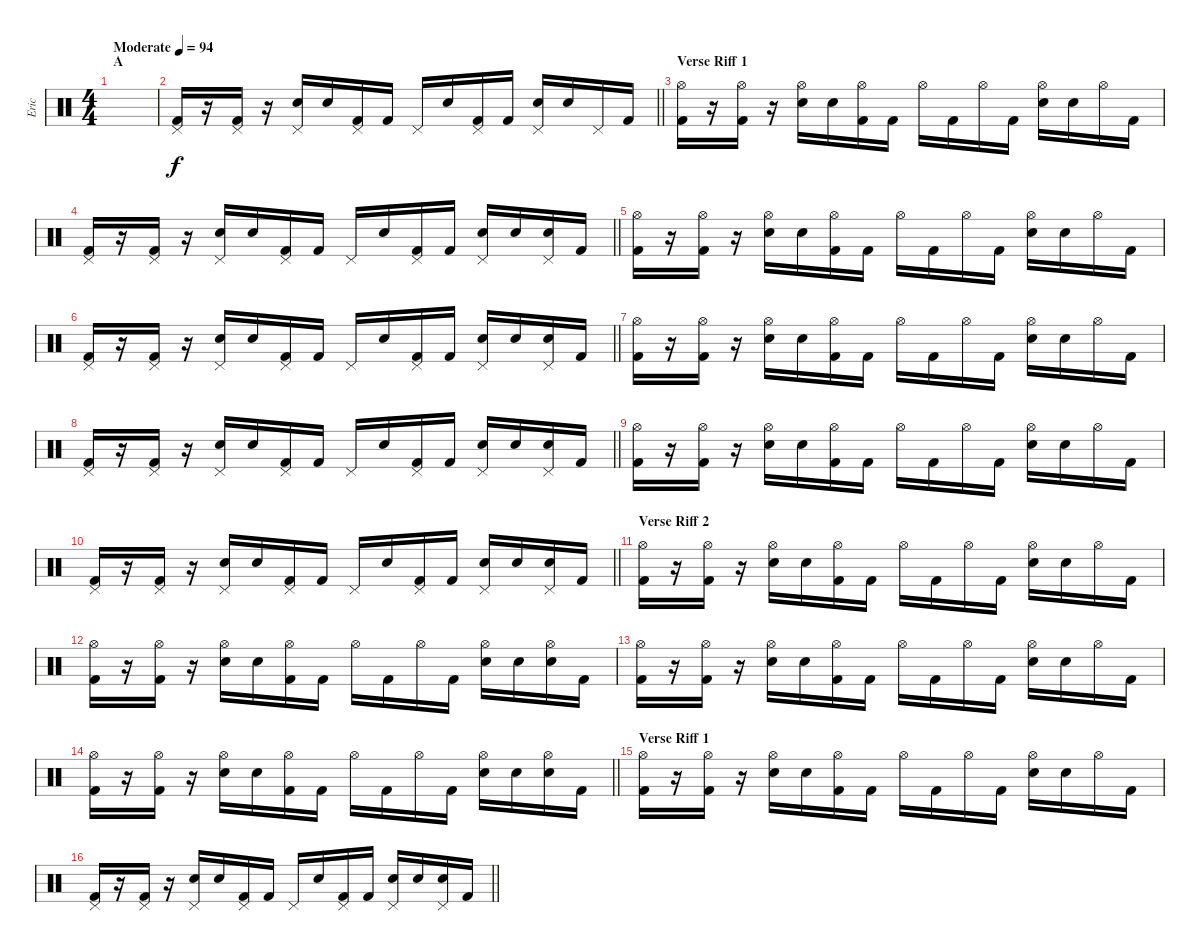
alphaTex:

\track ("Eric" "Eric") {instrument percussion}
\staff {score}
\articulation defaults
\ts (4 4)
\section ("" "A")
\tempo (94 "Moderate")
\clef neutral
\ks c
|
\barLineRight lightlight
("Pedal Hi-Hat (hit)" "Kick (hit) 2").16 r.16 ("Pedal Hi-Hat (hit)" "Kick (hit) 2").16 r.16 ("Pedal Hi-Hat (hit)" "Electric Snare (hit)").16 "Electric Snare (hit)".16 ("Pedal Hi-Hat (hit)" "Kick (hit) 2").16 "Kick (hit) 2".16 "Pedal Hi-Hat (hit)".16 "Electric Snare (hit)".16 ("Pedal Hi-Hat (hit)" "Kick (hit) 2").16 "Kick (hit) 2".16 ("Pedal Hi-Hat (hit)" "Electric Snare (hit)").16 "Electric Snare (hit)".16 "Pedal Hi-Hat (hit)".16 "Kick (hit) 2".16 |
\section ("" "Verse Riff 1")
("Hi-Hat (open)" "Kick (hit) 2").16 r.16 ("Hi-Hat (open)" "Kick (hit) 2").16 r.16 ("Hi-Hat (open)" "Electric Snare (hit)").16 "Electric Snare (hit)".16 ("Hi-Hat (open)" "Kick (hit) 2").16 "Kick (hit) 2".16 "Hi-Hat (open)".16 "Kick (hit) 2".16 "Hi-Hat (open)".16 "Kick (hit) 2".16 ("Hi-Hat (open)" "Electric Snare (hit)").16 "Electric Snare (hit)".16 "Hi-Hat (open)".16 "Kick (hit) 2".16 |
\barLineRight lightlight
("Pedal Hi-Hat (hit)" "Kick (hit) 2").16 r.16 ("Pedal Hi-Hat (hit)" "Kick (hit) 2").16 r.16 ("Pedal Hi-Hat (hit)" "Electric Snare (hit)").16 "Electric Snare (hit)".16 ("Pedal Hi-Hat (hit)" "Kick (hit) 2").16 "Kick (hit) 2".16 "Pedal Hi-Hat (hit)".16 "Electric Snare (hit)".16 ("Pedal Hi-Hat (hit)" "Kick (hit) 2").16 "Kick (hit) 2".16 ("Pedal Hi-Hat (hit)" "Electric Snare (hit)").16 "Electric Snare (hit)".16 ("Pedal Hi-Hat (hit)" "Electric Snare (hit)").16 "Kick (hit) 2".16 |
("Hi-Hat (open)" "Kick (hit) 2").16 r.16 ("Hi-Hat (open)" "Kick (hit) 2").16 r.16 ("Hi-Hat (open)" "Electric Snare (hit)").16 "Electric Snare (hit)".16 ("Hi-Hat (open)" "Kick (hit) 2").16 "Kick (hit) 2".16 "Hi-Hat (open)".16 "Kick (hit) 2".16 "Hi-Hat (open)".16 "Kick (hit) 2".16 ("Hi-Hat (open)" "Electric Snare (hit)").16 "Electric Snare (hit)".16 "Hi-Hat (open)".16 "Kick (hit) 2".16 |
\barLineRight lightlight
("Pedal Hi-Hat (hit)" "Kick (hit) 2").16 r.16 ("Pedal Hi-Hat (hit)" "Kick (hit) 2").16 r.16 ("Pedal Hi-Hat (hit)" "Electric Snare (hit)").16 "Electric Snare (hit)".16 ("Pedal Hi-Hat (hit)" "Kick (hit) 2").16 "Kick (hit) 2".16 "Pedal Hi-Hat (hit)".16 "Electric Snare (hit)".16 ("Pedal Hi-Hat (hit)" "Kick (hit) 2").16 "Kick (hit) 2".16 ("Pedal Hi-Hat (hit)" "Electric Snare (hit)").16 "Electric Snare (hit)".16 ("Pedal Hi-Hat (hit)" "Electric Snare (hit)").16 "Kick (hit) 2".16 |
("Hi-Hat (open)" "Kick (hit) 2").16 r.16 ("Hi-Hat (open)" "Kick (hit) 2").16 r.16 ("Hi-Hat (open)" "Electric Snare (hit)").16 "Electric Snare (hit)".16 ("Hi-Hat (open)" "Kick (hit) 2").16 "Kick (hit) 2".16 "Hi-Hat (open)".16 "Kick (hit) 2".16 "Hi-Hat (open)".16 "Kick (hit) 2".16 ("Hi-Hat (open)" "Electric Snare (hit)").16 "Electric Snare (hit)".16 "Hi-Hat (open)".16 "Kick (hit) 2".16 |
\barLineRight lightlight
("Pedal Hi-Hat (hit)" "Kick (hit) 2").16 r.16 ("Pedal Hi-Hat (hit)" "Kick (hit) 2").16 r.16 ("Pedal Hi-Hat (hit)" "Electric Snare (hit)").16 "Electric Snare (hit)".16 ("Pedal Hi-Hat (hit)" "Kick (hit) 2").16 "Kick (hit) 2".16 "Pedal Hi-Hat (hit)".16 "Electric Snare (hit)".16 ("Pedal Hi-Hat (hit)" "Kick (hit) 2").16 "Kick (hit) 2".16 ("Pedal Hi-Hat (hit)" "Electric Snare (hit)").16 "Electric Snare (hit)".16 ("Pedal Hi-Hat (hit)" "Electric Snare (hit)").16 "Kick (hit) 2".16 |
("Hi-Hat (open)" "Kick (hit) 2").16 r.16 ("Hi-Hat (open)" "Kick (hit) 2").16 r.16 ("Hi-Hat (open)" "Electric Snare (hit)").16 "Electric Snare (hit)".16 ("Hi-Hat (open)" "Kick (hit) 2").16 "Kick (hit) 2".16 "Hi-Hat (open)".16 "Kick (hit) 2".16 "Hi-Hat (open)".16 "Kick (hit) 2".16 ("Hi-Hat (open)" "Electric Snare (hit)").16 "Electric Snare (hit)".16 "Hi-Hat (open)".16 "Kick (hit) 2".16 |
\barLineRight lightlight
("Pedal Hi-Hat (hit)" "Kick (hit) 2").16 r.16 ("Pedal Hi-Hat (hit)" "Kick (hit) 2").16 r.16 ("Pedal Hi-Hat (hit)" "Electric Snare (hit)").16 "Electric Snare (hit)".16 ("Pedal Hi-Hat (hit)" "Kick (hit) 2").16 "Kick (hit) 2".16 "Pedal Hi-Hat (hit)".16 "Electric Snare (hit)".16 ("Pedal Hi-Hat (hit)" "Kick (hit) 2").16 "Kick (hit) 2".16 ("Pedal Hi-Hat (hit)" "Electric Snare (hit)").16 "Electric Snare (hit)".16 ("Pedal Hi-Hat (hit)" "Electric Snare (hit)").16 "Kick (hit) 2".16 |
\section ("" "Verse Riff 2")
("Hi-Hat (open)" "Kick (hit) 2").16 r.16 ("Hi-Hat (open)" "Kick (hit) 2").16 r.16 ("Hi-Hat (open)" "Electric Snare (hit)").16 "Electric Snare (hit)".16 ("Hi-Hat (open)" "Kick (hit) 2").16 "Kick (hit) 2".16 "Hi-Hat (open)".16 "Kick (hit) 2".16 "Hi-Hat (open)".16 "Kick (hit) 2".16 ("Hi-Hat (open)" "Electric Snare (hit)").16 "Electric Snare (hit)".16 "Hi-Hat (open)".16 "Kick (hit) 2".16 |
("Hi-Hat (open)" "Kick (hit) 2").16 r.16 ("Hi-Hat (open)" "Kick (hit) 2").16 r.16 ("Hi-Hat (open)" "Electric Snare (hit)").16 "Electric Snare (hit)".16 ("Hi-Hat (open)" "Kick (hit) 2").16 "Kick (hit) 2".16 "Hi-Hat (open)".16 "Kick (hit) 2".16 "Hi-Hat (open)".16 "Kick (hit) 2".16 ("Hi-Hat (open)" "Electric Snare (hit)").16 "Electric Snare (hit)".16 ("Hi-Hat (open)" "Electric Snare (hit)").16 "Kick (hit) 2".16 |
("Hi-Hat (open)" "Kick (hit) 2").16 r.16 ("Hi-Hat (open)" "Kick (hit) 2").16 r.16 ("Hi-Hat (open)" "Electric Snare (hit)").16 "Electric Snare (hit)".16 ("Hi-Hat (open)" "Kick (hit) 2").16 "Kick (hit) 2".16 "Hi-Hat (open)".16 "Kick (hit) 2".16 "Hi-Hat (open)".16 "Kick (hit) 2".16 ("Hi-Hat (open)" "Electric Snare (hit)").16 "Electric Snare (hit)".16 "Hi-Hat (open)".16 "Kick (hit) 2".16 |
\barLineRight lightlight
("Hi-Hat (open)" "Kick (hit) 2").16 r.16 ("Hi-Hat (open)" "Kick (hit) 2").16 r.16 ("Hi-Hat (open)" "Electric Snare (hit)").16 "Electric Snare (hit)".16 ("Hi-Hat (open)" "Kick (hit) 2").16 "Kick (hit) 2".16 "Hi-Hat (open)".16 "Kick (hit) 2".16 "Hi-Hat (open)".16 "Kick (hit) 2".16 ("Hi-Hat (open)" "Electric Snare (hit)").16 "Electric Snare (hit)".16 ("Hi-Hat (open)" "Electric Snare (hit)").16 "Kick (hit) 2".16 |
\section ("" "Verse Riff 1")
("Hi-Hat (open)" "Kick (hit) 2").16 r.16 ("Hi-Hat (open)" "Kick (hit) 2").16 r.16 ("Hi-Hat (open)" "Electric Snare (hit)").16 "Electric Snare (hit)".16 ("Hi-Hat (open)" "Kick (hit) 2").16 "Kick (hit) 2".16 "Hi-Hat (open)".16 "Kick (hit) 2".16 "Hi-Hat (open)".16 "Kick (hit) 2".16 ("Hi-Hat (open)" "Electric Snare (hit)").16 "Electric Snare (hit)".16 "Hi-Hat (open)".16 "Kick (hit) 2".16 |
\barLineRight lightlight
("Pedal Hi-Hat (hit)" "Kick (hit) 2").16 r.16 ("Pedal Hi-Hat (hit)" "Kick (hit) 2").16 r.16 ("Pedal Hi-Hat (hit)" "Electric Snare (hit)").16 "Electric Snare (hit)".16 ("Pedal Hi-Hat (hit)" "Kick (hit) 2").16 "Kick (hit) 2".16 "Pedal Hi-Hat (hit)".16 "Electric Snare (hit)".16 ("Pedal Hi-Hat (hit)" "Kick (hit) 2").16 "Kick (hit) 2".16 ("Pedal Hi-Hat (hit)" "Electric Snare (hit)").16 "Electric Snare (hit)".16 ("Pedal Hi-Hat (hit)" "Electric Snare (hit)").16 "Kick (hit) 2".16
